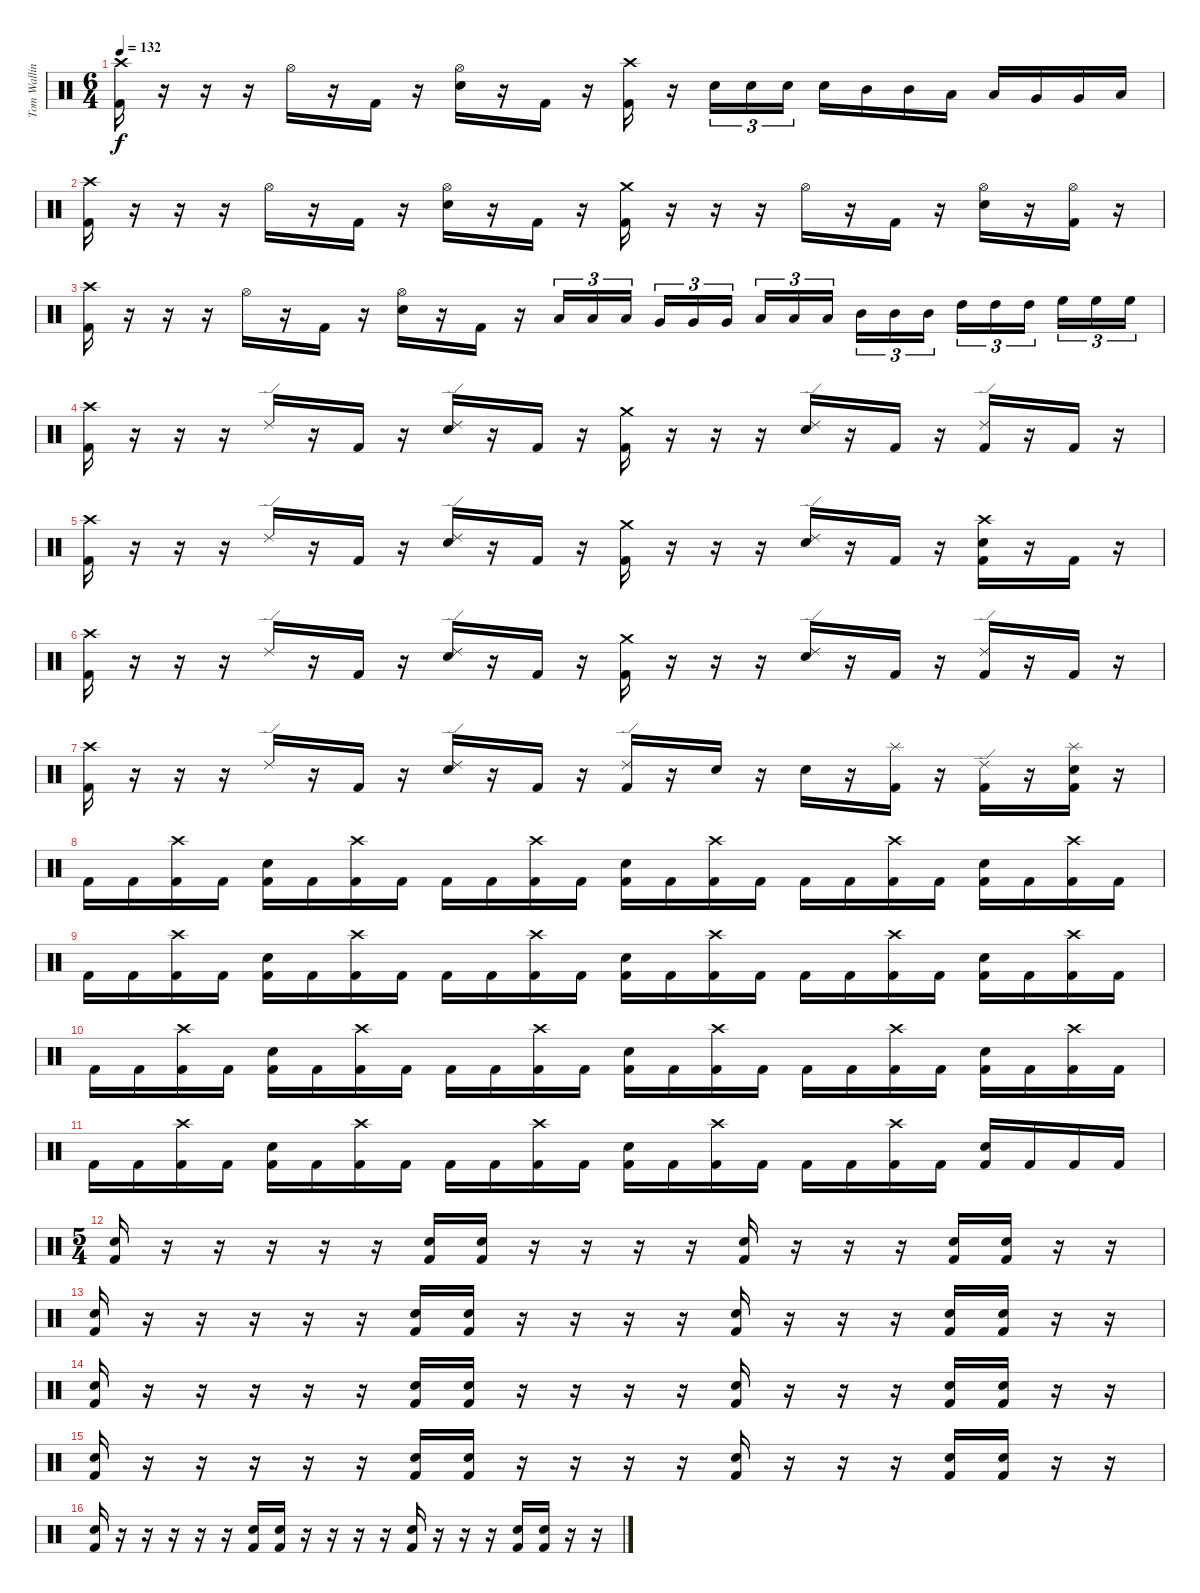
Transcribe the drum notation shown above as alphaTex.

\track ("Tom Walling [Drums]" "Tom Wallin") {instrument percussion}
\staff {score}
\articulation defaults
\ts (6 4)
\tempo 132
\clef neutral
\ks c
("Crash high (hit)" "Kick (hit) 2").16{dy f} r.16 r.16 r.16 "Hi-Hat (open)".16 r.16 "Kick (hit) 2".16 r.16 ("Hi-Hat (open)" "Electric Snare (hit)").16 r.16 "Kick (hit) 2".16 r.16 ("Crash high (hit)" "Kick (hit) 2").16 r.16 "Electric Snare (hit)".16{tu (3 2)} "Electric Snare (hit)".16{tu (3 2)} "Electric Snare (hit)".16{tu (3 2)} "Electric Snare (hit)".16 "Mid Tom (hit)".16 "Mid Tom (hit)".16 "Low Tom (hit)".16 "Low Tom (hit)".16 "Very Low Tom (hit)".16 "Very Low Tom (hit)".16 "Low Floor Tom (hit)".16 |
("Crash high (hit)" "Kick (hit) 2").16 r.16 r.16 r.16 "Hi-Hat (open)".16 r.16 "Kick (hit) 2".16 r.16 ("Hi-Hat (open)" "Electric Snare (hit)").16 r.16 "Kick (hit) 2".16 r.16 ("Crash medium (hit)" "Kick (hit) 2").16 r.16 r.16 r.16 "Hi-Hat (open)".16 r.16 "Kick (hit) 2".16 r.16 ("Hi-Hat (open)" "Electric Snare (hit)").16 r.16 ("Hi-Hat (open)" "Kick (hit) 2").16 r.16 |
("Crash high (hit)" "Kick (hit) 2").16 r.16 r.16 r.16 "Hi-Hat (open)".16 r.16 "Kick (hit) 2".16 r.16 ("Hi-Hat (open)" "Electric Snare (hit)").16 r.16 "Kick (hit) 2".16 r.16 "Low Floor Tom (hit)".16{tu (3 2)} "Low Floor Tom (hit)".16{tu (3 2)} "Low Floor Tom (hit)".16{tu (3 2)} "Very Low Tom (hit)".16{tu (3 2)} "Very Low Tom (hit)".16{tu (3 2)} "Very Low Tom (hit)".16{tu (3 2)} "Low Tom (hit)".16{tu (3 2)} "Low Tom (hit)".16{tu (3 2)} "Low Tom (hit)".16{tu (3 2)} "Mid Tom (hit)".16{tu (3 2)} "Mid Tom (hit)".16{tu (3 2)} "Mid Tom (hit)".16{tu (3 2)} "High Tom (hit)".16{tu (3 2)} "High Tom (hit)".16{tu (3 2)} "High Tom (hit)".16{tu (3 2)} "High Floor Tom (hit)".16{tu (3 2)} "High Floor Tom (hit)".16{tu (3 2)} "High Floor Tom (hit)".16{tu (3 2)} |
("Crash high (hit)" "Kick (hit) 2").16 r.16 r.16 r.16 "Ride (edge) 2".16 r.16 "Kick (hit) 2".16 r.16 ("Ride (edge) 2" "Electric Snare (hit)").16 r.16 "Kick (hit) 2".16 r.16 ("Crash medium (hit)" "Kick (hit) 2").16 r.16 r.16 r.16 ("Ride (edge) 2" "Electric Snare (hit)").16 r.16 "Kick (hit) 2".16 r.16 ("Ride (edge) 2" "Kick (hit) 2").16 r.16 "Kick (hit) 2".16 r.16 |
("Crash high (hit)" "Kick (hit) 2").16 r.16 r.16 r.16 "Ride (edge) 2".16 r.16 "Kick (hit) 2".16 r.16 ("Ride (edge) 2" "Electric Snare (hit)").16 r.16 "Kick (hit) 2".16 r.16 ("Crash medium (hit)" "Kick (hit) 2").16 r.16 r.16 r.16 ("Ride (edge) 2" "Electric Snare (hit)").16 r.16 "Kick (hit) 2".16 r.16 ("Crash high (hit)" "Electric Snare (hit)" "Kick (hit) 2").16 r.16 "Kick (hit) 2".16 r.16 |
("Crash high (hit)" "Kick (hit) 2").16 r.16 r.16 r.16 "Ride (edge) 2".16 r.16 "Kick (hit) 2".16 r.16 ("Ride (edge) 2" "Electric Snare (hit)").16 r.16 "Kick (hit) 2".16 r.16 ("Crash medium (hit)" "Kick (hit) 2").16 r.16 r.16 r.16 ("Ride (edge) 2" "Electric Snare (hit)").16 r.16 "Kick (hit) 2".16 r.16 ("Ride (edge) 2" "Kick (hit) 2").16 r.16 "Kick (hit) 2".16 r.16 |
("Crash high (hit)" "Kick (hit) 2").16 r.16 r.16 r.16 "Ride (edge) 2".16 r.16 "Kick (hit) 2".16 r.16 ("Ride (edge) 2" "Electric Snare (hit)").16 r.16 "Kick (hit) 2".16 r.16 ("Ride (edge) 2" "Kick (hit) 2").16 r.16 "Electric Snare (hit)".16 r.16 "Electric Snare (hit)".16 r.16 ("Splash (hit)" "Kick (hit) 2").16 r.16 ("Ride (edge) 2" "Kick (hit) 2").16 r.16 ("Splash (hit)" "Electric Snare (hit)" "Kick (hit) 2").16 r.16 |
"Kick (hit) 2".16 "Kick (hit) 2".16 ("Crash high (hit)" "Kick (hit) 2").16 "Kick (hit) 2".16 ("Electric Snare (hit)" "Kick (hit) 2").16 "Kick (hit) 2".16 ("Crash high (hit)" "Kick (hit) 2").16 "Kick (hit) 2".16 "Kick (hit) 2".16 "Kick (hit) 2".16 ("Crash high (hit)" "Kick (hit) 2").16 "Kick (hit) 2".16 ("Electric Snare (hit)" "Kick (hit) 2").16 "Kick (hit) 2".16 ("Crash high (hit)" "Kick (hit) 2").16 "Kick (hit) 2".16 "Kick (hit) 2".16 "Kick (hit) 2".16 ("Crash high (hit)" "Kick (hit) 2").16 "Kick (hit) 2".16 ("Electric Snare (hit)" "Kick (hit) 2").16 "Kick (hit) 2".16 ("Crash high (hit)" "Kick (hit) 2").16 "Kick (hit) 2".16 |
"Kick (hit) 2".16 "Kick (hit) 2".16 ("Crash high (hit)" "Kick (hit) 2").16 "Kick (hit) 2".16 ("Electric Snare (hit)" "Kick (hit) 2").16 "Kick (hit) 2".16 ("Crash high (hit)" "Kick (hit) 2").16 "Kick (hit) 2".16 "Kick (hit) 2".16 "Kick (hit) 2".16 ("Crash high (hit)" "Kick (hit) 2").16 "Kick (hit) 2".16 ("Electric Snare (hit)" "Kick (hit) 2").16 "Kick (hit) 2".16 ("Crash high (hit)" "Kick (hit) 2").16 "Kick (hit) 2".16 "Kick (hit) 2".16 "Kick (hit) 2".16 ("Crash high (hit)" "Kick (hit) 2").16 "Kick (hit) 2".16 ("Electric Snare (hit)" "Kick (hit) 2").16 "Kick (hit) 2".16 ("Crash high (hit)" "Kick (hit) 2").16 "Kick (hit) 2".16 |
"Kick (hit) 2".16 "Kick (hit) 2".16 ("Crash high (hit)" "Kick (hit) 2").16 "Kick (hit) 2".16 ("Electric Snare (hit)" "Kick (hit) 2").16 "Kick (hit) 2".16 ("Crash high (hit)" "Kick (hit) 2").16 "Kick (hit) 2".16 "Kick (hit) 2".16 "Kick (hit) 2".16 ("Crash high (hit)" "Kick (hit) 2").16 "Kick (hit) 2".16 ("Electric Snare (hit)" "Kick (hit) 2").16 "Kick (hit) 2".16 ("Crash high (hit)" "Kick (hit) 2").16 "Kick (hit) 2".16 "Kick (hit) 2".16 "Kick (hit) 2".16 ("Crash high (hit)" "Kick (hit) 2").16 "Kick (hit) 2".16 ("Electric Snare (hit)" "Kick (hit) 2").16 "Kick (hit) 2".16 ("Crash high (hit)" "Kick (hit) 2").16 "Kick (hit) 2".16 |
"Kick (hit) 2".16 "Kick (hit) 2".16 ("Crash high (hit)" "Kick (hit) 2").16 "Kick (hit) 2".16 ("Electric Snare (hit)" "Kick (hit) 2").16 "Kick (hit) 2".16 ("Crash high (hit)" "Kick (hit) 2").16 "Kick (hit) 2".16 "Kick (hit) 2".16 "Kick (hit) 2".16 ("Crash high (hit)" "Kick (hit) 2").16 "Kick (hit) 2".16 ("Electric Snare (hit)" "Kick (hit) 2").16 "Kick (hit) 2".16 ("Crash high (hit)" "Kick (hit) 2").16 "Kick (hit) 2".16 "Kick (hit) 2".16 "Kick (hit) 2".16 ("Crash high (hit)" "Kick (hit) 2").16 "Kick (hit) 2".16 ("Electric Snare (hit)" "Kick (hit) 2").16 "Kick (hit) 2".16 "Kick (hit) 2".16 "Kick (hit) 2".16 |
\ts (5 4)
("Electric Snare (hit)" "Kick (hit) 2").16 r.16 r.16 r.16 r.16 r.16 ("Electric Snare (hit)" "Kick (hit) 2").16 ("Electric Snare (hit)" "Kick (hit) 2").16 r.16 r.16 r.16 r.16 ("Electric Snare (hit)" "Kick (hit) 2").16 r.16 r.16 r.16 ("Electric Snare (hit)" "Kick (hit) 2").16 ("Electric Snare (hit)" "Kick (hit) 2").16 r.16 r.16 |
("Electric Snare (hit)" "Kick (hit) 2").16 r.16 r.16 r.16 r.16 r.16 ("Electric Snare (hit)" "Kick (hit) 2").16 ("Electric Snare (hit)" "Kick (hit) 2").16 r.16 r.16 r.16 r.16 ("Electric Snare (hit)" "Kick (hit) 2").16 r.16 r.16 r.16 ("Electric Snare (hit)" "Kick (hit) 2").16 ("Electric Snare (hit)" "Kick (hit) 2").16 r.16 r.16 |
("Electric Snare (hit)" "Kick (hit) 2").16 r.16 r.16 r.16 r.16 r.16 ("Electric Snare (hit)" "Kick (hit) 2").16 ("Electric Snare (hit)" "Kick (hit) 2").16 r.16 r.16 r.16 r.16 ("Electric Snare (hit)" "Kick (hit) 2").16 r.16 r.16 r.16 ("Electric Snare (hit)" "Kick (hit) 2").16 ("Electric Snare (hit)" "Kick (hit) 2").16 r.16 r.16 |
("Electric Snare (hit)" "Kick (hit) 2").16 r.16 r.16 r.16 r.16 r.16 ("Electric Snare (hit)" "Kick (hit) 2").16 ("Electric Snare (hit)" "Kick (hit) 2").16 r.16 r.16 r.16 r.16 ("Electric Snare (hit)" "Kick (hit) 2").16 r.16 r.16 r.16 ("Electric Snare (hit)" "Kick (hit) 2").16 ("Electric Snare (hit)" "Kick (hit) 2").16 r.16 r.16 |
("Electric Snare (hit)" "Kick (hit) 2").16 r.16 r.16 r.16 r.16 r.16 ("Electric Snare (hit)" "Kick (hit) 2").16 ("Electric Snare (hit)" "Kick (hit) 2").16 r.16 r.16 r.16 r.16 ("Electric Snare (hit)" "Kick (hit) 2").16 r.16 r.16 r.16 ("Electric Snare (hit)" "Kick (hit) 2").16 ("Electric Snare (hit)" "Kick (hit) 2").16 r.16 r.16
